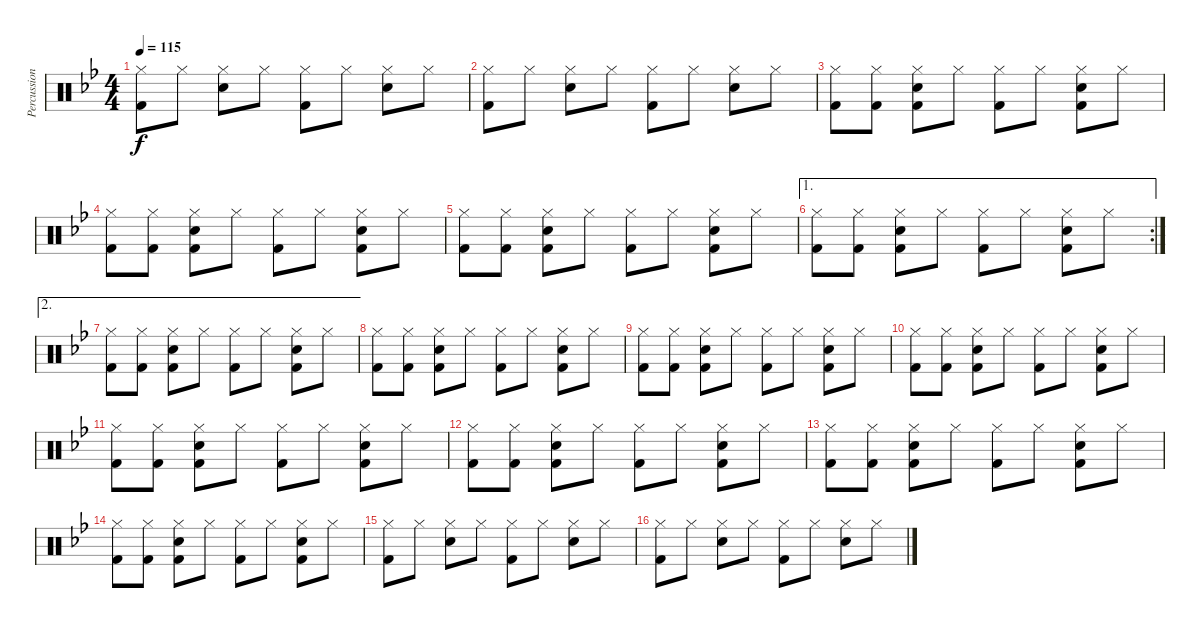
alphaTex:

\track ("Percussions" "Percussion") {instrument percussion}
\staff {score}
\articulation defaults
\ts (4 4)
\tempo 115
\clef neutral
\ks bb
("Hi-Hat (closed)" "Kick (hit) 2").8{dy f} "Hi-Hat (closed)".8 ("Hi-Hat (closed)" "Electric Snare (hit)").8 "Hi-Hat (closed)".8 ("Hi-Hat (closed)" "Kick (hit) 2").8 "Hi-Hat (closed)".8 ("Hi-Hat (closed)" "Electric Snare (hit)").8 "Hi-Hat (closed)".8 |
("Hi-Hat (closed)" "Kick (hit) 2").8 "Hi-Hat (closed)".8 ("Hi-Hat (closed)" "Electric Snare (hit)").8 "Hi-Hat (closed)".8 ("Hi-Hat (closed)" "Kick (hit) 2").8 "Hi-Hat (closed)".8 ("Hi-Hat (closed)" "Electric Snare (hit)").8 "Hi-Hat (closed)".8 |
("Hi-Hat (closed)" "Kick (hit) 2").8 ("Hi-Hat (closed)" "Kick (hit) 2").8 ("Hi-Hat (closed)" "Electric Snare (hit)" "Kick (hit) 2").8 "Hi-Hat (closed)".8 ("Hi-Hat (closed)" "Kick (hit) 2").8 "Hi-Hat (closed)".8 ("Hi-Hat (closed)" "Electric Snare (hit)" "Kick (hit) 2").8 "Hi-Hat (closed)".8 |
("Hi-Hat (closed)" "Kick (hit) 2").8 ("Hi-Hat (closed)" "Kick (hit) 2").8 ("Hi-Hat (closed)" "Electric Snare (hit)" "Kick (hit) 2").8 "Hi-Hat (closed)".8 ("Hi-Hat (closed)" "Kick (hit) 2").8 "Hi-Hat (closed)".8 ("Hi-Hat (closed)" "Electric Snare (hit)" "Kick (hit) 2").8 "Hi-Hat (closed)".8 |
("Hi-Hat (closed)" "Kick (hit) 2").8 ("Hi-Hat (closed)" "Kick (hit) 2").8 ("Hi-Hat (closed)" "Electric Snare (hit)" "Kick (hit) 2").8 "Hi-Hat (closed)".8 ("Hi-Hat (closed)" "Kick (hit) 2").8 "Hi-Hat (closed)".8 ("Hi-Hat (closed)" "Electric Snare (hit)" "Kick (hit) 2").8 "Hi-Hat (closed)".8 |
\ae 1
\rc 2
("Hi-Hat (closed)" "Kick (hit) 2").8 ("Hi-Hat (closed)" "Kick (hit) 2").8 ("Hi-Hat (closed)" "Electric Snare (hit)" "Kick (hit) 2").8 "Hi-Hat (closed)".8 ("Hi-Hat (closed)" "Kick (hit) 2").8 "Hi-Hat (closed)".8 ("Hi-Hat (closed)" "Electric Snare (hit)" "Kick (hit) 2").8 "Hi-Hat (closed)".8 |
\ae 2
("Hi-Hat (closed)" "Kick (hit) 2").8 ("Hi-Hat (closed)" "Kick (hit) 2").8 ("Hi-Hat (closed)" "Electric Snare (hit)" "Kick (hit) 2").8 "Hi-Hat (closed)".8 ("Hi-Hat (closed)" "Kick (hit) 2").8 "Hi-Hat (closed)".8 ("Hi-Hat (closed)" "Electric Snare (hit)" "Kick (hit) 2").8 "Hi-Hat (closed)".8 |
("Hi-Hat (closed)" "Kick (hit) 2").8 ("Hi-Hat (closed)" "Kick (hit) 2").8 ("Hi-Hat (closed)" "Electric Snare (hit)" "Kick (hit) 2").8 "Hi-Hat (closed)".8 ("Hi-Hat (closed)" "Kick (hit) 2").8 "Hi-Hat (closed)".8 ("Hi-Hat (closed)" "Electric Snare (hit)" "Kick (hit) 2").8 "Hi-Hat (closed)".8 |
("Hi-Hat (closed)" "Kick (hit) 2").8 ("Hi-Hat (closed)" "Kick (hit) 2").8 ("Hi-Hat (closed)" "Electric Snare (hit)" "Kick (hit) 2").8 "Hi-Hat (closed)".8 ("Hi-Hat (closed)" "Kick (hit) 2").8 "Hi-Hat (closed)".8 ("Hi-Hat (closed)" "Electric Snare (hit)" "Kick (hit) 2").8 "Hi-Hat (closed)".8 |
("Hi-Hat (closed)" "Kick (hit) 2").8 ("Hi-Hat (closed)" "Kick (hit) 2").8 ("Hi-Hat (closed)" "Electric Snare (hit)" "Kick (hit) 2").8 "Hi-Hat (closed)".8 ("Hi-Hat (closed)" "Kick (hit) 2").8 "Hi-Hat (closed)".8 ("Hi-Hat (closed)" "Electric Snare (hit)" "Kick (hit) 2").8 "Hi-Hat (closed)".8 |
("Hi-Hat (closed)" "Kick (hit) 2").8 ("Hi-Hat (closed)" "Kick (hit) 2").8 ("Hi-Hat (closed)" "Electric Snare (hit)" "Kick (hit) 2").8 "Hi-Hat (closed)".8 ("Hi-Hat (closed)" "Kick (hit) 2").8 "Hi-Hat (closed)".8 ("Hi-Hat (closed)" "Electric Snare (hit)" "Kick (hit) 2").8 "Hi-Hat (closed)".8 |
("Hi-Hat (closed)" "Kick (hit) 2").8 ("Hi-Hat (closed)" "Kick (hit) 2").8 ("Hi-Hat (closed)" "Electric Snare (hit)" "Kick (hit) 2").8 "Hi-Hat (closed)".8 ("Hi-Hat (closed)" "Kick (hit) 2").8 "Hi-Hat (closed)".8 ("Hi-Hat (closed)" "Electric Snare (hit)" "Kick (hit) 2").8 "Hi-Hat (closed)".8 |
("Hi-Hat (closed)" "Kick (hit) 2").8 ("Hi-Hat (closed)" "Kick (hit) 2").8 ("Hi-Hat (closed)" "Electric Snare (hit)" "Kick (hit) 2").8 "Hi-Hat (closed)".8 ("Hi-Hat (closed)" "Kick (hit) 2").8 "Hi-Hat (closed)".8 ("Hi-Hat (closed)" "Electric Snare (hit)" "Kick (hit) 2").8 "Hi-Hat (closed)".8 |
("Hi-Hat (closed)" "Kick (hit) 2").8 ("Hi-Hat (closed)" "Kick (hit) 2").8 ("Hi-Hat (closed)" "Electric Snare (hit)" "Kick (hit) 2").8 "Hi-Hat (closed)".8 ("Hi-Hat (closed)" "Kick (hit) 2").8 "Hi-Hat (closed)".8 ("Hi-Hat (closed)" "Electric Snare (hit)" "Kick (hit) 2").8 "Hi-Hat (closed)".8 |
("Hi-Hat (closed)" "Kick (hit) 2").8 "Hi-Hat (closed)".8 ("Hi-Hat (closed)" "Electric Snare (hit)").8 "Hi-Hat (closed)".8 ("Hi-Hat (closed)" "Kick (hit) 2").8 "Hi-Hat (closed)".8 ("Hi-Hat (closed)" "Electric Snare (hit)").8 "Hi-Hat (closed)".8 |
("Hi-Hat (closed)" "Kick (hit) 2").8 "Hi-Hat (closed)".8 ("Hi-Hat (closed)" "Electric Snare (hit)").8 "Hi-Hat (closed)".8 ("Hi-Hat (closed)" "Kick (hit) 2").8 "Hi-Hat (closed)".8 ("Hi-Hat (closed)" "Electric Snare (hit)").8 "Hi-Hat (closed)".8
